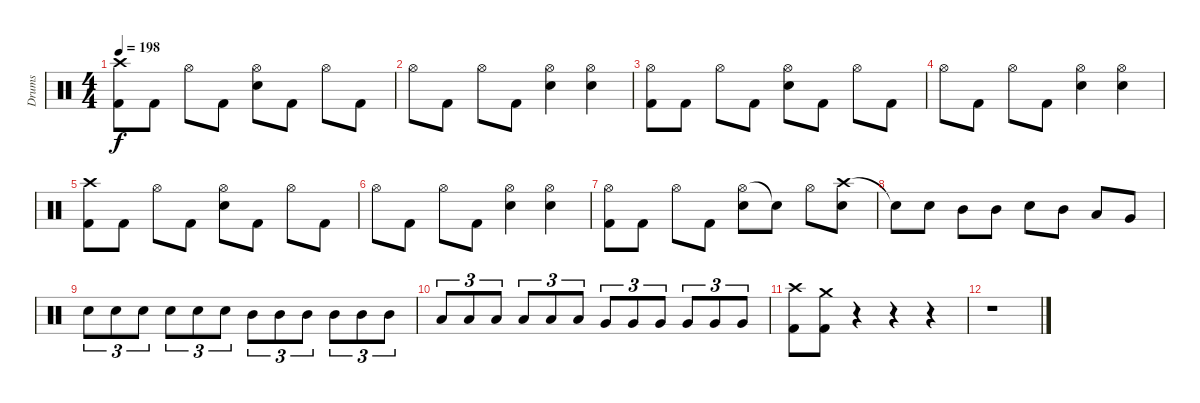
\track ("Drums" "Drums") {instrument percussion}
\staff {score}
\articulation defaults
\ts (4 4)
\tempo 198
\clef neutral
\ks c
("Crash high (hit)" "Kick (hit) 2").8{dy f} "Kick (hit) 2".8 "Hi-Hat (open)".8 "Kick (hit) 2".8 ("Hi-Hat (open)" "Snare (hit) 2").8 "Kick (hit) 2".8 "Hi-Hat (open)".8 "Kick (hit) 2".8 |
"Hi-Hat (open)".8 "Kick (hit) 2".8 "Hi-Hat (open)".8 "Kick (hit) 2".8 ("Hi-Hat (open)" "Snare (hit) 2").4 ("Hi-Hat (open)" "Snare (hit) 2").4 |
("Hi-Hat (open)" "Kick (hit) 2").8 "Kick (hit) 2".8 "Hi-Hat (open)".8 "Kick (hit) 2".8 ("Hi-Hat (open)" "Snare (hit) 2").8 "Kick (hit) 2".8 "Hi-Hat (open)".8 "Kick (hit) 2".8 |
"Hi-Hat (open)".8 "Kick (hit) 2".8 "Hi-Hat (open)".8 "Kick (hit) 2".8 ("Hi-Hat (open)" "Snare (hit) 2").4 ("Hi-Hat (open)" "Snare (hit) 2").4 |
("Crash high (hit)" "Kick (hit) 2").8 "Kick (hit) 2".8 "Hi-Hat (open)".8 "Kick (hit) 2".8 ("Hi-Hat (open)" "Snare (hit) 2").8 "Kick (hit) 2".8 "Hi-Hat (open)".8 "Kick (hit) 2".8 |
"Hi-Hat (open)".8 "Kick (hit) 2".8 "Hi-Hat (open)".8 "Kick (hit) 2".8 ("Hi-Hat (open)" "Snare (hit) 2").4 ("Hi-Hat (open)" "Snare (hit) 2").4 |
("Hi-Hat (open)" "Kick (hit) 2").8 "Kick (hit) 2".8 "Hi-Hat (open)".8 "Kick (hit) 2".8 ("Hi-Hat (open)" "Snare (hit) 2").8 "Snare (hit)"{t}.8 "Hi-Hat (open)".8 ("Crash high (hit)" "Snare (hit) 2").8 |
"Snare (hit)"{t}.8 "Snare (hit) 2".8 "Mid Tom (hit)".8 "Mid Tom (hit)".8 "Snare (hit) 2".8 "Mid Tom (hit)".8 "Low Tom (hit)".8 "Very Low Tom (hit)".8 |
"Snare (hit) 2".8{tu (3 2)} "Snare (hit) 2".8{tu (3 2)} "Snare (hit) 2".8{tu (3 2)} "Snare (hit) 2".8{tu (3 2)} "Snare (hit) 2".8{tu (3 2)} "Snare (hit) 2".8{tu (3 2)} "Mid Tom (hit)".8{tu (3 2)} "Mid Tom (hit)".8{tu (3 2)} "Mid Tom (hit)".8{tu (3 2)} "Mid Tom (hit)".8{tu (3 2)} "Mid Tom (hit)".8{tu (3 2)} "Mid Tom (hit)".8{tu (3 2)} |
"Low Tom (hit)".8{tu (3 2)} "Low Tom (hit)".8{tu (3 2)} "Low Tom (hit)".8{tu (3 2)} "Low Tom (hit)".8{tu (3 2)} "Low Tom (hit)".8{tu (3 2)} "Low Tom (hit)".8{tu (3 2)} "Very Low Tom (hit)".8{tu (3 2)} "Very Low Tom (hit)".8{tu (3 2)} "Very Low Tom (hit)".8{tu (3 2)} "Very Low Tom (hit)".8{tu (3 2)} "Very Low Tom (hit)".8{tu (3 2)} "Very Low Tom (hit)".8{tu (3 2)} |
("Crash high (hit)" "Kick (hit) 2").8 ("Crash medium (hit)" "Kick (hit) 2").8 r.4 r.4 r.4 |
r.1
